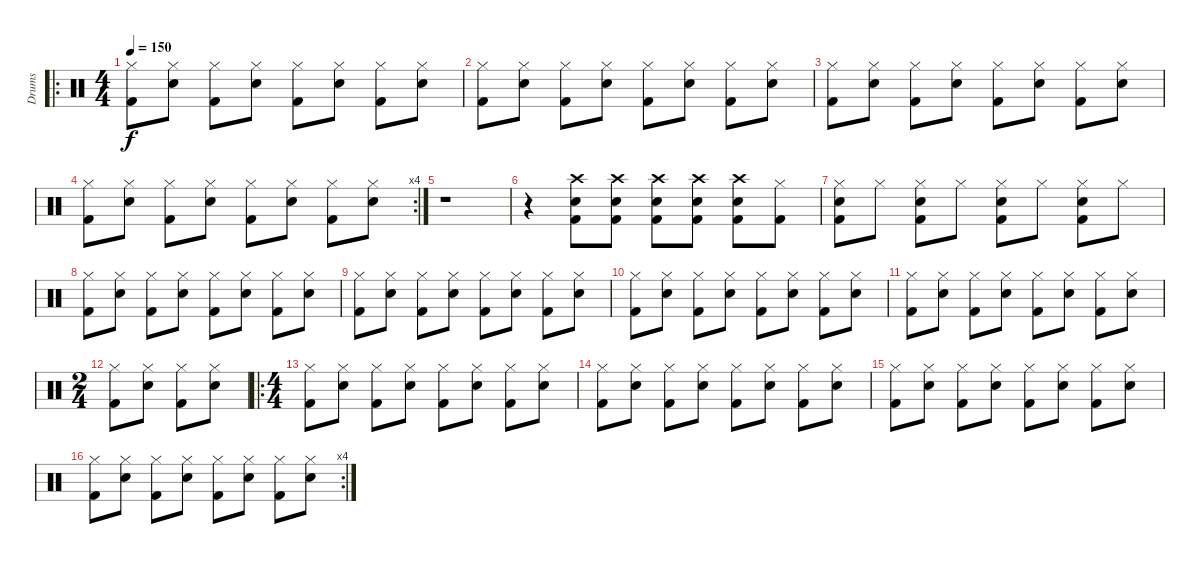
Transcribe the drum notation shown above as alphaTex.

\track ("Drums" "Drums") {instrument percussion}
\staff {score}
\articulation defaults
\ro
\ts (4 4)
\tempo 150
\clef neutral
\ks c
("Hi-Hat (closed)" "Kick (hit) 2").8{dy f} ("Hi-Hat (closed)" "Electric Snare (hit)").8 ("Hi-Hat (closed)" "Kick (hit) 2").8 ("Hi-Hat (closed)" "Electric Snare (hit)").8 ("Hi-Hat (closed)" "Kick (hit) 2").8 ("Hi-Hat (closed)" "Electric Snare (hit)").8 ("Hi-Hat (closed)" "Kick (hit) 2").8 ("Hi-Hat (closed)" "Electric Snare (hit)").8 |
("Hi-Hat (closed)" "Kick (hit) 2").8 ("Hi-Hat (closed)" "Electric Snare (hit)").8 ("Hi-Hat (closed)" "Kick (hit) 2").8 ("Hi-Hat (closed)" "Electric Snare (hit)").8 ("Hi-Hat (closed)" "Kick (hit) 2").8 ("Hi-Hat (closed)" "Electric Snare (hit)").8 ("Hi-Hat (closed)" "Kick (hit) 2").8 ("Hi-Hat (closed)" "Electric Snare (hit)").8 |
("Hi-Hat (closed)" "Kick (hit) 2").8 ("Hi-Hat (closed)" "Electric Snare (hit)").8 ("Hi-Hat (closed)" "Kick (hit) 2").8 ("Hi-Hat (closed)" "Electric Snare (hit)").8 ("Hi-Hat (closed)" "Kick (hit) 2").8 ("Hi-Hat (closed)" "Electric Snare (hit)").8 ("Hi-Hat (closed)" "Kick (hit) 2").8 ("Hi-Hat (closed)" "Electric Snare (hit)").8 |
\rc 4
("Hi-Hat (closed)" "Kick (hit) 2").8 ("Hi-Hat (closed)" "Electric Snare (hit)").8 ("Hi-Hat (closed)" "Kick (hit) 2").8 ("Hi-Hat (closed)" "Electric Snare (hit)").8 ("Hi-Hat (closed)" "Kick (hit) 2").8 ("Hi-Hat (closed)" "Electric Snare (hit)").8 ("Hi-Hat (closed)" "Kick (hit) 2").8 ("Hi-Hat (closed)" "Electric Snare (hit)").8 |
r.1 |
r.4 ("Electric Snare (hit)" "Kick (hit) 2" "Crash high (hit)").8 ("Electric Snare (hit)" "Kick (hit) 2" "Crash high (hit)").8 ("Electric Snare (hit)" "Kick (hit) 2" "Crash high (hit)").8 ("Electric Snare (hit)" "Kick (hit) 2" "Crash high (hit)").8 ("Electric Snare (hit)" "Kick (hit) 2" "Crash high (hit)").8 ("Hi-Hat (closed)" "Kick (hit) 2").8 |
("Hi-Hat (closed)" "Electric Snare (hit)" "Kick (hit) 2").8 "Hi-Hat (closed)".8 ("Hi-Hat (closed)" "Electric Snare (hit)" "Kick (hit) 2").8 "Hi-Hat (closed)".8 ("Hi-Hat (closed)" "Electric Snare (hit)" "Kick (hit) 2").8 "Hi-Hat (closed)".8 ("Hi-Hat (closed)" "Electric Snare (hit)" "Kick (hit) 2").8 "Hi-Hat (closed)".8 |
("Hi-Hat (closed)" "Kick (hit) 2").8 ("Hi-Hat (closed)" "Electric Snare (hit)").8 ("Hi-Hat (closed)" "Kick (hit) 2").8 ("Hi-Hat (closed)" "Electric Snare (hit)").8 ("Hi-Hat (closed)" "Kick (hit) 2").8 ("Hi-Hat (closed)" "Electric Snare (hit)").8 ("Hi-Hat (closed)" "Kick (hit) 2").8 ("Hi-Hat (closed)" "Electric Snare (hit)").8 |
("Hi-Hat (closed)" "Kick (hit) 2").8 ("Hi-Hat (closed)" "Electric Snare (hit)").8 ("Hi-Hat (closed)" "Kick (hit) 2").8 ("Hi-Hat (closed)" "Electric Snare (hit)").8 ("Hi-Hat (closed)" "Kick (hit) 2").8 ("Hi-Hat (closed)" "Electric Snare (hit)").8 ("Hi-Hat (closed)" "Kick (hit) 2").8 ("Hi-Hat (closed)" "Electric Snare (hit)").8 |
("Hi-Hat (closed)" "Kick (hit) 2").8 ("Hi-Hat (closed)" "Electric Snare (hit)").8 ("Hi-Hat (closed)" "Kick (hit) 2").8 ("Hi-Hat (closed)" "Electric Snare (hit)").8 ("Hi-Hat (closed)" "Kick (hit) 2").8 ("Hi-Hat (closed)" "Electric Snare (hit)").8 ("Hi-Hat (closed)" "Kick (hit) 2").8 ("Hi-Hat (closed)" "Electric Snare (hit)").8 |
("Hi-Hat (closed)" "Kick (hit) 2").8 ("Hi-Hat (closed)" "Electric Snare (hit)").8 ("Hi-Hat (closed)" "Kick (hit) 2").8 ("Hi-Hat (closed)" "Electric Snare (hit)").8 ("Hi-Hat (closed)" "Kick (hit) 2").8 ("Hi-Hat (closed)" "Electric Snare (hit)").8 ("Hi-Hat (closed)" "Kick (hit) 2").8 ("Hi-Hat (closed)" "Electric Snare (hit)").8 |
\ts (2 4)
("Hi-Hat (closed)" "Kick (hit) 2").8 ("Hi-Hat (closed)" "Electric Snare (hit)").8 ("Hi-Hat (closed)" "Kick (hit) 2").8 ("Hi-Hat (closed)" "Electric Snare (hit)").8 |
\ro
\ts (4 4)
("Hi-Hat (closed)" "Kick (hit) 2").8 ("Hi-Hat (closed)" "Electric Snare (hit)").8 ("Hi-Hat (closed)" "Kick (hit) 2").8 ("Hi-Hat (closed)" "Electric Snare (hit)").8 ("Hi-Hat (closed)" "Kick (hit) 2").8 ("Hi-Hat (closed)" "Electric Snare (hit)").8 ("Hi-Hat (closed)" "Kick (hit) 2").8 ("Hi-Hat (closed)" "Electric Snare (hit)").8 |
("Hi-Hat (closed)" "Kick (hit) 2").8 ("Hi-Hat (closed)" "Electric Snare (hit)").8 ("Hi-Hat (closed)" "Kick (hit) 2").8 ("Hi-Hat (closed)" "Electric Snare (hit)").8 ("Hi-Hat (closed)" "Kick (hit) 2").8 ("Hi-Hat (closed)" "Electric Snare (hit)").8 ("Hi-Hat (closed)" "Kick (hit) 2").8 ("Hi-Hat (closed)" "Electric Snare (hit)").8 |
("Hi-Hat (closed)" "Kick (hit) 2").8 ("Hi-Hat (closed)" "Electric Snare (hit)").8 ("Hi-Hat (closed)" "Kick (hit) 2").8 ("Hi-Hat (closed)" "Electric Snare (hit)").8 ("Hi-Hat (closed)" "Kick (hit) 2").8 ("Hi-Hat (closed)" "Electric Snare (hit)").8 ("Hi-Hat (closed)" "Kick (hit) 2").8 ("Hi-Hat (closed)" "Electric Snare (hit)").8 |
\rc 4
("Hi-Hat (closed)" "Kick (hit) 2").8 ("Hi-Hat (closed)" "Electric Snare (hit)").8 ("Hi-Hat (closed)" "Kick (hit) 2").8 ("Hi-Hat (closed)" "Electric Snare (hit)").8 ("Hi-Hat (closed)" "Kick (hit) 2").8 ("Hi-Hat (closed)" "Electric Snare (hit)").8 ("Hi-Hat (closed)" "Kick (hit) 2").8 ("Hi-Hat (closed)" "Electric Snare (hit)").8
